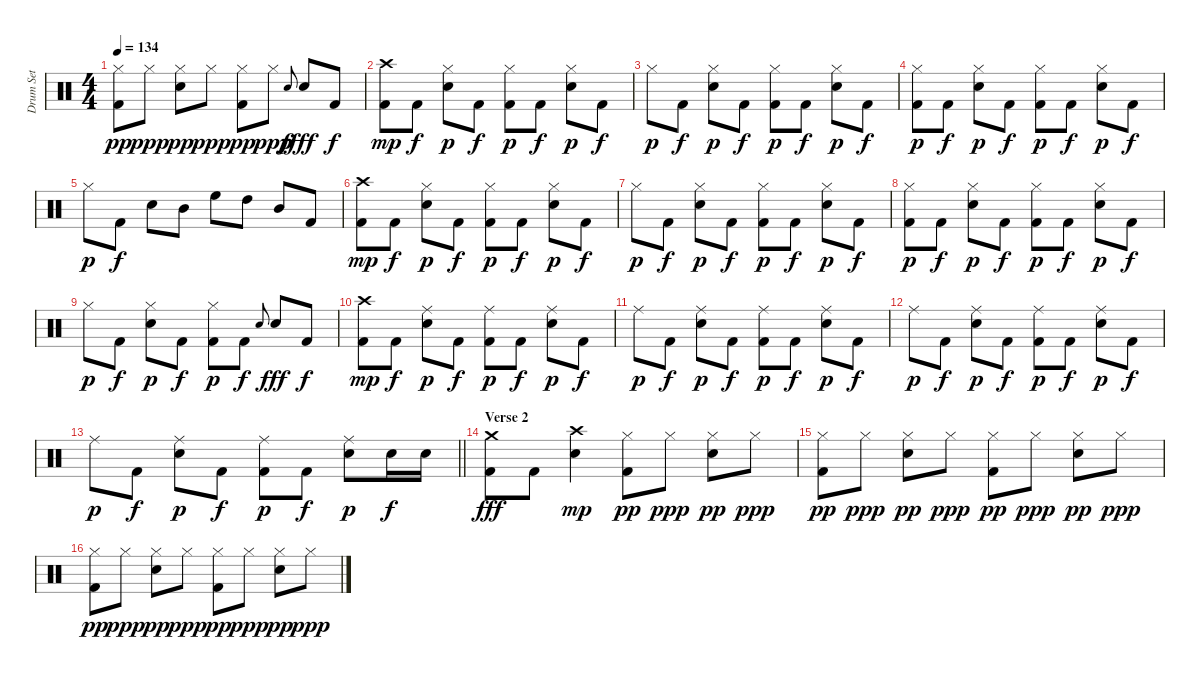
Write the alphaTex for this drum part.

\track ("Drum Set" "Drum Set") {instrument percussion}
\staff {score}
\articulation defaults
\ts (4 4)
\tempo 134
\clef neutral
\ks c
("Hi-Hat (closed)" "Kick (hit) 2").8{dy pp} "Hi-Hat (closed)".8{dy ppp} ("Hi-Hat (closed)" "Electric Snare (hit)").8{dy pp} "Hi-Hat (closed)".8{dy ppp} ("Hi-Hat (closed)" "Kick (hit) 2").8{dy pp} "Hi-Hat (closed)".8{dy ppp} "Electric Snare (hit)".8{gr onbeat dy f} "Electric Snare (hit)".8{dy fff} "Kick (hit) 2".8{dy f} |
("Kick (hit) 2" "Crash high (hit)").8{dy mp} "Kick (hit) 2".8{dy f} ("Electric Snare (hit)" "Hi-Hat (closed)").8{dy p} "Kick (hit) 2".8{dy f} ("Kick (hit) 2" "Hi-Hat (closed)").8{dy p} "Kick (hit) 2".8{dy f} ("Electric Snare (hit)" "Hi-Hat (closed)").8{dy p} "Kick (hit) 2".8{dy f} |
"Hi-Hat (closed)".8{dy p} "Kick (hit) 2".8{dy f} ("Electric Snare (hit)" "Hi-Hat (closed)").8{dy p} "Kick (hit) 2".8{dy f} ("Kick (hit) 2" "Hi-Hat (closed)").8{dy p} "Kick (hit) 2".8{dy f} ("Electric Snare (hit)" "Hi-Hat (closed)").8{dy p} "Kick (hit) 2".8{dy f} |
("Hi-Hat (closed)" "Kick (hit) 2").8{dy p} "Kick (hit) 2".8{dy f} ("Electric Snare (hit)" "Hi-Hat (closed)").8{dy p} "Kick (hit) 2".8{dy f} ("Kick (hit) 2" "Hi-Hat (closed)").8{dy p} "Kick (hit) 2".8{dy f} ("Electric Snare (hit)" "Hi-Hat (closed)").8{dy p} "Kick (hit) 2".8{dy f} |
"Hi-Hat (closed)".8{dy p} "Kick (hit) 2".8{dy f} "Electric Snare (hit)".8 "Mid Tom (hit)".8 "High Floor Tom (hit)".8 "High Tom (hit)".8 "Mid Tom (hit)".8 "Kick (hit) 2".8 |
("Kick (hit) 2" "Crash high (hit)").8{dy mp} "Kick (hit) 2".8{dy f} ("Electric Snare (hit)" "Hi-Hat (closed)").8{dy p} "Kick (hit) 2".8{dy f} ("Kick (hit) 2" "Hi-Hat (closed)").8{dy p} "Kick (hit) 2".8{dy f} ("Electric Snare (hit)" "Hi-Hat (closed)").8{dy p} "Kick (hit) 2".8{dy f} |
"Hi-Hat (closed)".8{dy p} "Kick (hit) 2".8{dy f} ("Electric Snare (hit)" "Hi-Hat (closed)").8{dy p} "Kick (hit) 2".8{dy f} ("Kick (hit) 2" "Hi-Hat (closed)").8{dy p} "Kick (hit) 2".8{dy f} ("Electric Snare (hit)" "Hi-Hat (closed)").8{dy p} "Kick (hit) 2".8{dy f} |
("Hi-Hat (closed)" "Kick (hit) 2").8{dy p} "Kick (hit) 2".8{dy f} ("Electric Snare (hit)" "Hi-Hat (closed)").8{dy p} "Kick (hit) 2".8{dy f} ("Kick (hit) 2" "Hi-Hat (closed)").8{dy p} "Kick (hit) 2".8{dy f} ("Electric Snare (hit)" "Hi-Hat (closed)").8{dy p} "Kick (hit) 2".8{dy f} |
"Hi-Hat (closed)".8{dy p} "Kick (hit) 2".8{dy f} ("Electric Snare (hit)" "Hi-Hat (closed)").8{dy p} "Kick (hit) 2".8{dy f} ("Kick (hit) 2" "Hi-Hat (closed)").8{dy p} "Kick (hit) 2".8{dy f} "Electric Snare (hit)".8{gr onbeat} "Electric Snare (hit)".8{dy fff} "Kick (hit) 2".8{dy f} |
("Crash high (hit)" "Kick (hit) 2").8{dy mp} "Kick (hit) 2".8{dy f} ("Electric Snare (hit)" "Ride (middle)").8{dy p} "Kick (hit) 2".8{dy f} ("Kick (hit) 2" "Ride (middle)").8{dy p} "Kick (hit) 2".8{dy f} ("Electric Snare (hit)" "Ride (middle)").8{dy p} "Kick (hit) 2".8{dy f} |
"Ride (middle)".8{dy p} "Kick (hit) 2".8{dy f} ("Electric Snare (hit)" "Ride (middle)").8{dy p} "Kick (hit) 2".8{dy f} ("Kick (hit) 2" "Ride (middle)").8{dy p} "Kick (hit) 2".8{dy f} ("Electric Snare (hit)" "Ride (middle)").8{dy p} "Kick (hit) 2".8{dy f} |
"Ride (middle)".8{dy p} "Kick (hit) 2".8{dy f} ("Electric Snare (hit)" "Ride (middle)").8{dy p} "Kick (hit) 2".8{dy f} ("Kick (hit) 2" "Ride (middle)").8{dy p} "Kick (hit) 2".8{dy f} ("Electric Snare (hit)" "Ride (middle)").8{dy p} "Kick (hit) 2".8{dy f} |
\barLineRight lightlight "Ride (middle)".8{dy p} "Kick (hit) 2".8{dy f}
("Electric Snare (hit)" "Ride (middle)").8{dy p} "Kick (hit) 2".8{dy f} ("Kick (hit) 2" "Ride (middle)").8{dy p} "Kick (hit) 2".8{dy f} ("Electric Snare (hit)" "Ride (middle)").8{dy p} "Electric Snare (hit)".16{dy f} "Electric Snare (hit)".16 |
\section ("" "Verse 2")
("Crash medium (hit)" "Kick (hit) 2").8{dy fff} "Kick (hit) 2".8 ("Crash high (hit)" "Electric Snare (hit)").4{dy mp} ("Hi-Hat (closed)" "Kick (hit) 2").8{dy pp} "Hi-Hat (closed)".8{dy ppp} ("Hi-Hat (closed)" "Electric Snare (hit)").8{dy pp} "Hi-Hat (closed)".8{dy ppp} |
("Hi-Hat (closed)" "Kick (hit) 2").8{dy pp} "Hi-Hat (closed)".8{dy ppp} ("Hi-Hat (closed)" "Electric Snare (hit)").8{dy pp} "Hi-Hat (closed)".8{dy ppp} ("Hi-Hat (closed)" "Kick (hit) 2").8{dy pp} "Hi-Hat (closed)".8{dy ppp} ("Hi-Hat (closed)" "Electric Snare (hit)").8{dy pp} "Hi-Hat (closed)".8{dy ppp} |
("Hi-Hat (closed)" "Kick (hit) 2").8{dy pp} "Hi-Hat (closed)".8{dy ppp} ("Hi-Hat (closed)" "Electric Snare (hit)").8{dy pp} "Hi-Hat (closed)".8{dy ppp} ("Hi-Hat (closed)" "Kick (hit) 2").8{dy pp} "Hi-Hat (closed)".8{dy ppp} ("Hi-Hat (closed)" "Electric Snare (hit)").8{dy pp} "Hi-Hat (closed)".8{dy ppp}
